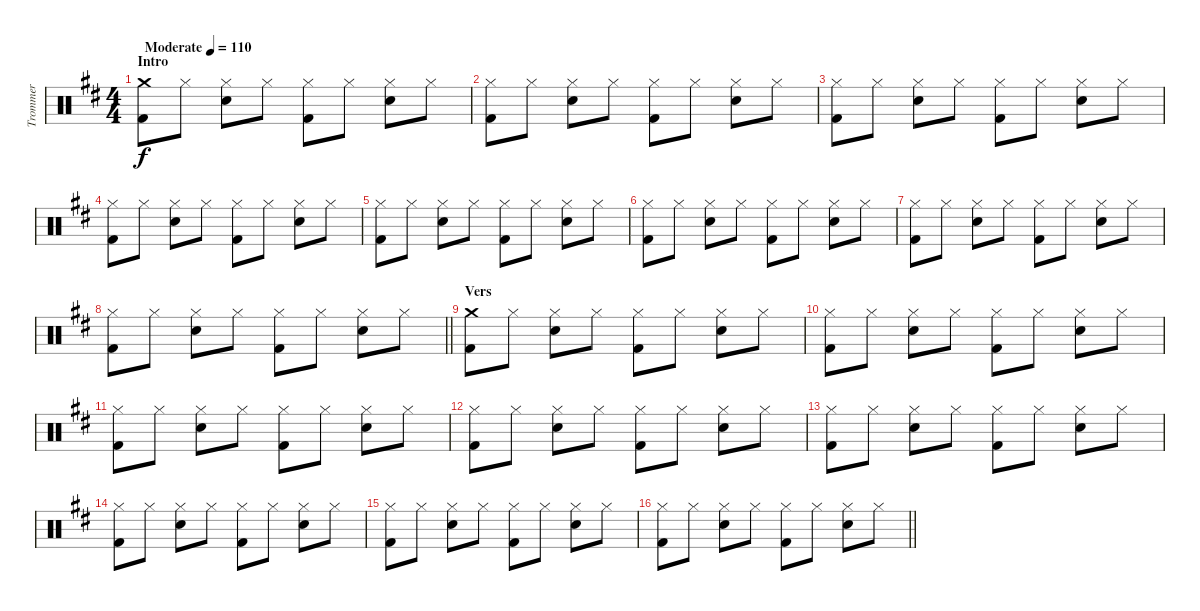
\track ("Trommer" "Trommer") {instrument percussion}
\staff {score}
\articulation defaults
\ts (4 4)
\section ("" "Intro")
\tempo (110 "Moderate")
\clef neutral
\ks d
("Crash medium (hit)" "Kick (hit) 2").8{dy f} "Hi-Hat (closed)".8 ("Hi-Hat (closed)" "Electric Snare (hit)").8 "Hi-Hat (closed)".8 ("Hi-Hat (closed)" "Kick (hit) 2").8 "Hi-Hat (closed)".8 ("Hi-Hat (closed)" "Electric Snare (hit)").8 "Hi-Hat (closed)".8 |
("Hi-Hat (closed)" "Kick (hit) 2").8 "Hi-Hat (closed)".8 ("Hi-Hat (closed)" "Electric Snare (hit)").8 "Hi-Hat (closed)".8 ("Hi-Hat (closed)" "Kick (hit) 2").8 "Hi-Hat (closed)".8 ("Hi-Hat (closed)" "Electric Snare (hit)").8 "Hi-Hat (closed)".8 |
("Hi-Hat (closed)" "Kick (hit) 2").8 "Hi-Hat (closed)".8 ("Hi-Hat (closed)" "Electric Snare (hit)").8 "Hi-Hat (closed)".8 ("Hi-Hat (closed)" "Kick (hit) 2").8 "Hi-Hat (closed)".8 ("Hi-Hat (closed)" "Electric Snare (hit)").8 "Hi-Hat (closed)".8 |
("Hi-Hat (closed)" "Kick (hit) 2").8 "Hi-Hat (closed)".8 ("Hi-Hat (closed)" "Electric Snare (hit)").8 "Hi-Hat (closed)".8 ("Hi-Hat (closed)" "Kick (hit) 2").8 "Hi-Hat (closed)".8 ("Hi-Hat (closed)" "Electric Snare (hit)").8 "Hi-Hat (closed)".8 |
("Hi-Hat (closed)" "Kick (hit) 2").8 "Hi-Hat (closed)".8 ("Hi-Hat (closed)" "Electric Snare (hit)").8 "Hi-Hat (closed)".8 ("Hi-Hat (closed)" "Kick (hit) 2").8 "Hi-Hat (closed)".8 ("Hi-Hat (closed)" "Electric Snare (hit)").8 "Hi-Hat (closed)".8 |
("Hi-Hat (closed)" "Kick (hit) 2").8 "Hi-Hat (closed)".8 ("Hi-Hat (closed)" "Electric Snare (hit)").8 "Hi-Hat (closed)".8 ("Hi-Hat (closed)" "Kick (hit) 2").8 "Hi-Hat (closed)".8 ("Hi-Hat (closed)" "Electric Snare (hit)").8 "Hi-Hat (closed)".8 |
("Hi-Hat (closed)" "Kick (hit) 2").8 "Hi-Hat (closed)".8 ("Hi-Hat (closed)" "Electric Snare (hit)").8 "Hi-Hat (closed)".8 ("Hi-Hat (closed)" "Kick (hit) 2").8 "Hi-Hat (closed)".8 ("Hi-Hat (closed)" "Electric Snare (hit)").8 "Hi-Hat (closed)".8 |
\barLineRight lightlight
("Hi-Hat (closed)" "Kick (hit) 2").8 "Hi-Hat (closed)".8 ("Hi-Hat (closed)" "Electric Snare (hit)").8 "Hi-Hat (closed)".8 ("Hi-Hat (closed)" "Kick (hit) 2").8 "Hi-Hat (closed)".8 ("Hi-Hat (closed)" "Electric Snare (hit)").8 "Hi-Hat (closed)".8 |
\section ("" "Vers")
("Crash medium (hit)" "Kick (hit) 2").8 "Hi-Hat (closed)".8 ("Hi-Hat (closed)" "Electric Snare (hit)").8 "Hi-Hat (closed)".8 ("Hi-Hat (closed)" "Kick (hit) 2").8 "Hi-Hat (closed)".8 ("Hi-Hat (closed)" "Electric Snare (hit)").8 "Hi-Hat (closed)".8 |
("Hi-Hat (closed)" "Kick (hit) 2").8 "Hi-Hat (closed)".8 ("Hi-Hat (closed)" "Electric Snare (hit)").8 "Hi-Hat (closed)".8 ("Hi-Hat (closed)" "Kick (hit) 2").8 "Hi-Hat (closed)".8 ("Hi-Hat (closed)" "Electric Snare (hit)").8 "Hi-Hat (closed)".8 |
("Hi-Hat (closed)" "Kick (hit) 2").8 "Hi-Hat (closed)".8 ("Hi-Hat (closed)" "Electric Snare (hit)").8 "Hi-Hat (closed)".8 ("Hi-Hat (closed)" "Kick (hit) 2").8 "Hi-Hat (closed)".8 ("Hi-Hat (closed)" "Electric Snare (hit)").8 "Hi-Hat (closed)".8 |
("Hi-Hat (closed)" "Kick (hit) 2").8 "Hi-Hat (closed)".8 ("Hi-Hat (closed)" "Electric Snare (hit)").8 "Hi-Hat (closed)".8 ("Hi-Hat (closed)" "Kick (hit) 2").8 "Hi-Hat (closed)".8 ("Hi-Hat (closed)" "Electric Snare (hit)").8 "Hi-Hat (closed)".8 |
("Hi-Hat (closed)" "Kick (hit) 2").8 "Hi-Hat (closed)".8 ("Hi-Hat (closed)" "Electric Snare (hit)").8 "Hi-Hat (closed)".8 ("Hi-Hat (closed)" "Kick (hit) 2").8 "Hi-Hat (closed)".8 ("Hi-Hat (closed)" "Electric Snare (hit)").8 "Hi-Hat (closed)".8 |
("Hi-Hat (closed)" "Kick (hit) 2").8 "Hi-Hat (closed)".8 ("Hi-Hat (closed)" "Electric Snare (hit)").8 "Hi-Hat (closed)".8 ("Hi-Hat (closed)" "Kick (hit) 2").8 "Hi-Hat (closed)".8 ("Hi-Hat (closed)" "Electric Snare (hit)").8 "Hi-Hat (closed)".8 |
("Hi-Hat (closed)" "Kick (hit) 2").8 "Hi-Hat (closed)".8 ("Hi-Hat (closed)" "Electric Snare (hit)").8 "Hi-Hat (closed)".8 ("Hi-Hat (closed)" "Kick (hit) 2").8 "Hi-Hat (closed)".8 ("Hi-Hat (closed)" "Electric Snare (hit)").8 "Hi-Hat (closed)".8 |
\barLineRight lightlight
("Hi-Hat (closed)" "Kick (hit) 2").8 "Hi-Hat (closed)".8 ("Hi-Hat (closed)" "Electric Snare (hit)").8 "Hi-Hat (closed)".8 ("Hi-Hat (closed)" "Kick (hit) 2").8 "Hi-Hat (closed)".8 ("Hi-Hat (closed)" "Electric Snare (hit)").8 "Hi-Hat (closed)".8
